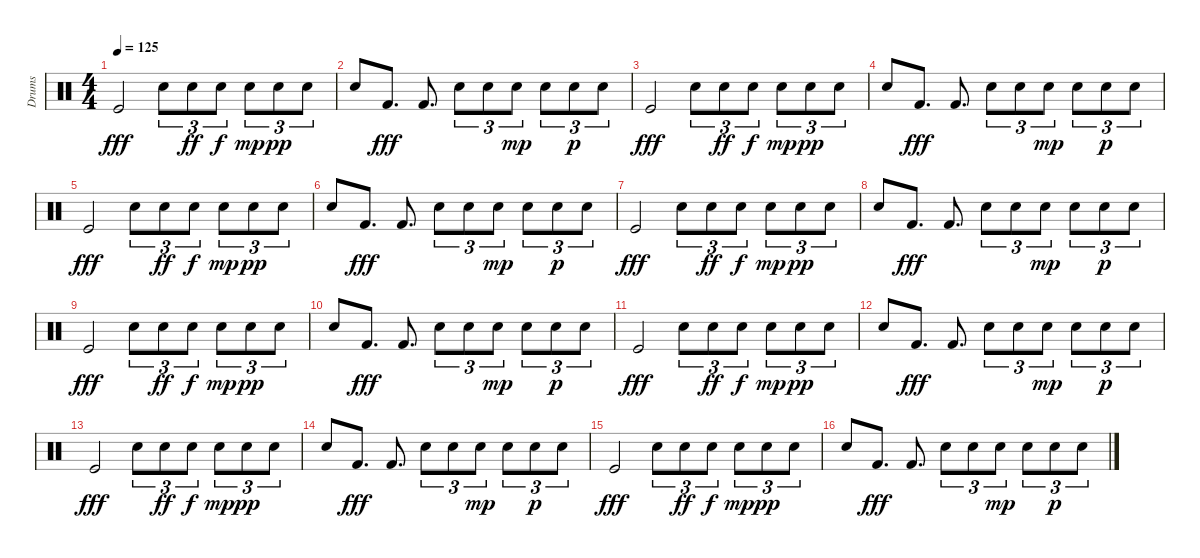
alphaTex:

\track ("Drums" "Drums") {instrument percussion}
\staff {score}
\articulation defaults
\ts (4 4)
\tempo 125
\clef neutral
\ks c "Kick (hit)".2{dy fff} "Hand Clap (hit)".8{tu (3 2)} "Hand Clap (hit)".8{tu (3 2) dy ff} "Hand Clap (hit)".8{tu (3 2) dy f} "Hand Clap (hit)".8{tu (3 2) dy mp} "Hand Clap (hit)".8{tu (3 2) dy pp} "Hand Clap (hit)".8{tu (3 2)}
|
"Hand Clap (hit)".8 "Kick (hit) 2".8{d dy fff} "Kick (hit) 2".8{d} "Hand Clap (hit)".8{tu (3 2)} "Hand Clap (hit)".8{tu (3 2)} "Hand Clap (hit)".8{tu (3 2) dy mp} "Hand Clap (hit)".8{tu (3 2)} "Hand Clap (hit)".8{tu (3 2) dy p} "Hand Clap (hit)".8{tu (3 2)} |
"Kick (hit)".2{dy fff} "Hand Clap (hit)".8{tu (3 2)} "Hand Clap (hit)".8{tu (3 2) dy ff} "Hand Clap (hit)".8{tu (3 2) dy f} "Hand Clap (hit)".8{tu (3 2) dy mp} "Hand Clap (hit)".8{tu (3 2) dy pp} "Hand Clap (hit)".8{tu (3 2)} |
"Hand Clap (hit)".8 "Kick (hit) 2".8{d dy fff} "Kick (hit) 2".8{d} "Hand Clap (hit)".8{tu (3 2)} "Hand Clap (hit)".8{tu (3 2)} "Hand Clap (hit)".8{tu (3 2) dy mp} "Hand Clap (hit)".8{tu (3 2)} "Hand Clap (hit)".8{tu (3 2) dy p} "Hand Clap (hit)".8{tu (3 2)} |
"Kick (hit)".2{dy fff} "Hand Clap (hit)".8{tu (3 2)} "Hand Clap (hit)".8{tu (3 2) dy ff} "Hand Clap (hit)".8{tu (3 2) dy f} "Hand Clap (hit)".8{tu (3 2) dy mp} "Hand Clap (hit)".8{tu (3 2) dy pp} "Hand Clap (hit)".8{tu (3 2)} |
"Hand Clap (hit)".8 "Kick (hit) 2".8{d dy fff} "Kick (hit) 2".8{d} "Hand Clap (hit)".8{tu (3 2)} "Hand Clap (hit)".8{tu (3 2)} "Hand Clap (hit)".8{tu (3 2) dy mp} "Hand Clap (hit)".8{tu (3 2)} "Hand Clap (hit)".8{tu (3 2) dy p} "Hand Clap (hit)".8{tu (3 2)} |
"Kick (hit)".2{dy fff} "Hand Clap (hit)".8{tu (3 2)} "Hand Clap (hit)".8{tu (3 2) dy ff} "Hand Clap (hit)".8{tu (3 2) dy f} "Hand Clap (hit)".8{tu (3 2) dy mp} "Hand Clap (hit)".8{tu (3 2) dy pp} "Hand Clap (hit)".8{tu (3 2)} |
"Hand Clap (hit)".8 "Kick (hit) 2".8{d dy fff} "Kick (hit) 2".8{d} "Hand Clap (hit)".8{tu (3 2)} "Hand Clap (hit)".8{tu (3 2)} "Hand Clap (hit)".8{tu (3 2) dy mp} "Hand Clap (hit)".8{tu (3 2)} "Hand Clap (hit)".8{tu (3 2) dy p} "Hand Clap (hit)".8{tu (3 2)} |
"Kick (hit)".2{dy fff} "Hand Clap (hit)".8{tu (3 2)} "Hand Clap (hit)".8{tu (3 2) dy ff} "Hand Clap (hit)".8{tu (3 2) dy f} "Hand Clap (hit)".8{tu (3 2) dy mp} "Hand Clap (hit)".8{tu (3 2) dy pp} "Hand Clap (hit)".8{tu (3 2)} |
"Hand Clap (hit)".8 "Kick (hit) 2".8{d dy fff} "Kick (hit) 2".8{d} "Hand Clap (hit)".8{tu (3 2)} "Hand Clap (hit)".8{tu (3 2)} "Hand Clap (hit)".8{tu (3 2) dy mp} "Hand Clap (hit)".8{tu (3 2)} "Hand Clap (hit)".8{tu (3 2) dy p} "Hand Clap (hit)".8{tu (3 2)} |
"Kick (hit)".2{dy fff} "Hand Clap (hit)".8{tu (3 2)} "Hand Clap (hit)".8{tu (3 2) dy ff} "Hand Clap (hit)".8{tu (3 2) dy f} "Hand Clap (hit)".8{tu (3 2) dy mp} "Hand Clap (hit)".8{tu (3 2) dy pp} "Hand Clap (hit)".8{tu (3 2)} |
"Hand Clap (hit)".8 "Kick (hit) 2".8{d dy fff} "Kick (hit) 2".8{d} "Hand Clap (hit)".8{tu (3 2)} "Hand Clap (hit)".8{tu (3 2)} "Hand Clap (hit)".8{tu (3 2) dy mp} "Hand Clap (hit)".8{tu (3 2)} "Hand Clap (hit)".8{tu (3 2) dy p} "Hand Clap (hit)".8{tu (3 2)} |
"Kick (hit)".2{dy fff} "Hand Clap (hit)".8{tu (3 2)} "Hand Clap (hit)".8{tu (3 2) dy ff} "Hand Clap (hit)".8{tu (3 2) dy f} "Hand Clap (hit)".8{tu (3 2) dy mp} "Hand Clap (hit)".8{tu (3 2) dy pp} "Hand Clap (hit)".8{tu (3 2)} |
"Hand Clap (hit)".8 "Kick (hit) 2".8{d dy fff} "Kick (hit) 2".8{d} "Hand Clap (hit)".8{tu (3 2)} "Hand Clap (hit)".8{tu (3 2)} "Hand Clap (hit)".8{tu (3 2) dy mp} "Hand Clap (hit)".8{tu (3 2)} "Hand Clap (hit)".8{tu (3 2) dy p} "Hand Clap (hit)".8{tu (3 2)} |
"Kick (hit)".2{dy fff} "Hand Clap (hit)".8{tu (3 2)} "Hand Clap (hit)".8{tu (3 2) dy ff} "Hand Clap (hit)".8{tu (3 2) dy f} "Hand Clap (hit)".8{tu (3 2) dy mp} "Hand Clap (hit)".8{tu (3 2) dy pp} "Hand Clap (hit)".8{tu (3 2)} |
"Hand Clap (hit)".8 "Kick (hit) 2".8{d dy fff} "Kick (hit) 2".8{d} "Hand Clap (hit)".8{tu (3 2)} "Hand Clap (hit)".8{tu (3 2)} "Hand Clap (hit)".8{tu (3 2) dy mp} "Hand Clap (hit)".8{tu (3 2)} "Hand Clap (hit)".8{tu (3 2) dy p} "Hand Clap (hit)".8{tu (3 2)}
